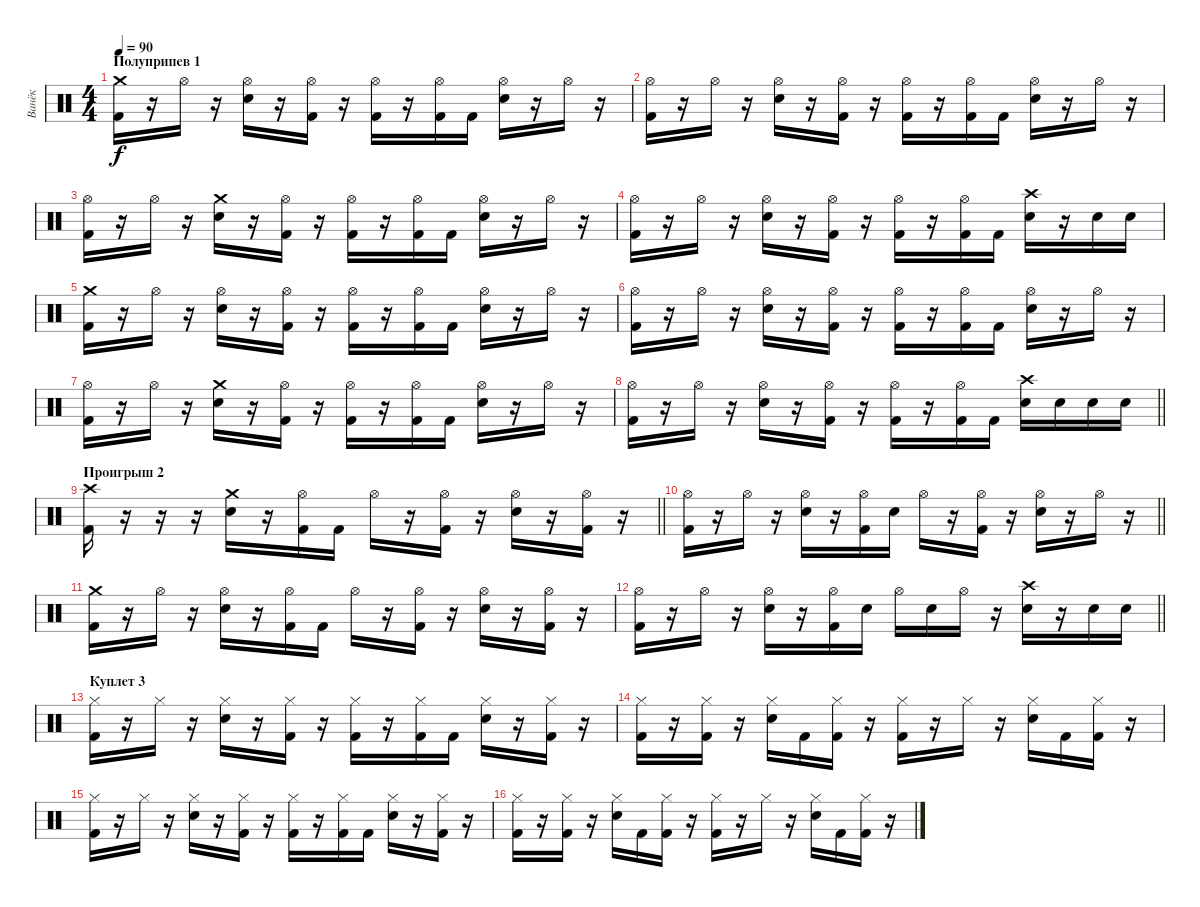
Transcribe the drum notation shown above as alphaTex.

\track ("Ванёк" "Ванёк") {instrument percussion}
\staff {score}
\articulation defaults
\ts (4 4)
\section ("" "Полуприпев 1")
\tempo 90
\clef neutral
\ks c
("Crash medium (hit)" "Kick (hit) 2").16{dy f} r.16 "Hi-Hat (open)".16 r.16 ("Hi-Hat (open)" "Electric Snare (hit)").16 r.16 ("Hi-Hat (open)" "Kick (hit) 2").16 r.16 ("Hi-Hat (open)" "Kick (hit) 2").16 r.16 ("Hi-Hat (open)" "Kick (hit) 2").16 "Kick (hit) 2".16 ("Hi-Hat (open)" "Electric Snare (hit)").16 r.16 "Hi-Hat (open)".16 r.16 |
("Hi-Hat (open)" "Kick (hit) 2").16 r.16 "Hi-Hat (open)".16 r.16 ("Hi-Hat (open)" "Electric Snare (hit)").16 r.16 ("Hi-Hat (open)" "Kick (hit) 2").16 r.16 ("Hi-Hat (open)" "Kick (hit) 2").16 r.16 ("Hi-Hat (open)" "Kick (hit) 2").16 "Kick (hit) 2".16 ("Hi-Hat (open)" "Electric Snare (hit)").16 r.16 "Hi-Hat (open)".16 r.16 |
("Hi-Hat (open)" "Kick (hit) 2").16 r.16 "Hi-Hat (open)".16 r.16 ("Crash medium (hit)" "Electric Snare (hit)").16 r.16 ("Hi-Hat (open)" "Kick (hit) 2").16 r.16 ("Hi-Hat (open)" "Kick (hit) 2").16 r.16 ("Hi-Hat (open)" "Kick (hit) 2").16 "Kick (hit) 2".16 ("Hi-Hat (open)" "Electric Snare (hit)").16 r.16 "Hi-Hat (open)".16 r.16 |
("Hi-Hat (open)" "Kick (hit) 2").16 r.16 "Hi-Hat (open)".16 r.16 ("Hi-Hat (open)" "Electric Snare (hit)").16 r.16 ("Hi-Hat (open)" "Kick (hit) 2").16 r.16 ("Hi-Hat (open)" "Kick (hit) 2").16 r.16 ("Hi-Hat (open)" "Kick (hit) 2").16 "Kick (hit) 2".16 ("Crash high (hit)" "Electric Snare (hit)").16 r.16 "Electric Snare (hit)".16 "Electric Snare (hit)".16 |
("Crash medium (hit)" "Kick (hit) 2").16 r.16 "Hi-Hat (open)".16 r.16 ("Hi-Hat (open)" "Electric Snare (hit)").16 r.16 ("Hi-Hat (open)" "Kick (hit) 2").16 r.16 ("Hi-Hat (open)" "Kick (hit) 2").16 r.16 ("Hi-Hat (open)" "Kick (hit) 2").16 "Kick (hit) 2".16 ("Hi-Hat (open)" "Electric Snare (hit)").16 r.16 "Hi-Hat (open)".16 r.16 |
("Hi-Hat (open)" "Kick (hit) 2").16 r.16 "Hi-Hat (open)".16 r.16 ("Hi-Hat (open)" "Electric Snare (hit)").16 r.16 ("Hi-Hat (open)" "Kick (hit) 2").16 r.16 ("Hi-Hat (open)" "Kick (hit) 2").16 r.16 ("Hi-Hat (open)" "Kick (hit) 2").16 "Kick (hit) 2".16 ("Hi-Hat (open)" "Electric Snare (hit)").16 r.16 "Hi-Hat (open)".16 r.16 |
("Hi-Hat (open)" "Kick (hit) 2").16 r.16 "Hi-Hat (open)".16 r.16 ("Crash medium (hit)" "Electric Snare (hit)").16 r.16 ("Hi-Hat (open)" "Kick (hit) 2").16 r.16 ("Hi-Hat (open)" "Kick (hit) 2").16 r.16 ("Hi-Hat (open)" "Kick (hit) 2").16 "Kick (hit) 2".16 ("Hi-Hat (open)" "Electric Snare (hit)").16 r.16 "Hi-Hat (open)".16 r.16 |
\barLineRight lightlight
("Hi-Hat (open)" "Kick (hit) 2").16 r.16 "Hi-Hat (open)".16 r.16 ("Hi-Hat (open)" "Electric Snare (hit)").16 r.16 ("Hi-Hat (open)" "Kick (hit) 2").16 r.16 ("Hi-Hat (open)" "Kick (hit) 2").16 r.16 ("Hi-Hat (open)" "Kick (hit) 2").16 "Kick (hit) 2".16 ("Crash high (hit)" "Electric Snare (hit)").16 "Electric Snare (hit)".16 "Electric Snare (hit)".16 "Electric Snare (hit)".16 |
\section ("" "Проигрыш 2")
\barLineRight lightlight
("Crash high (hit)" "Kick (hit) 2").16 r.16 r.16 r.16 ("Crash medium (hit)" "Electric Snare (hit)").16 r.16 ("Hi-Hat (open)" "Kick (hit) 2").16 "Kick (hit) 2".16 "Hi-Hat (open)".16 r.16 ("Hi-Hat (open)" "Kick (hit) 2").16 r.16 ("Hi-Hat (open)" "Electric Snare (hit)").16 r.16 ("Hi-Hat (open)" "Kick (hit) 2").16 r.16 |
\barLineRight lightlight
("Hi-Hat (open)" "Kick (hit) 2").16 r.16 "Hi-Hat (open)".16 r.16 ("Hi-Hat (open)" "Electric Snare (hit)").16 r.16 ("Hi-Hat (open)" "Kick (hit) 2").16 "Electric Snare (hit)".16 "Hi-Hat (open)".16 r.16 ("Hi-Hat (open)" "Kick (hit) 2").16 r.16 ("Hi-Hat (open)" "Electric Snare (hit)").16 r.16 "Hi-Hat (open)".16 r.16 |
("Crash medium (hit)" "Kick (hit) 2").16 r.16 "Hi-Hat (open)".16 r.16 ("Hi-Hat (open)" "Electric Snare (hit)").16 r.16 ("Hi-Hat (open)" "Kick (hit) 2").16 "Kick (hit) 2".16 "Hi-Hat (open)".16 r.16 ("Hi-Hat (open)" "Kick (hit) 2").16 r.16 ("Hi-Hat (open)" "Electric Snare (hit)").16 r.16 ("Hi-Hat (open)" "Kick (hit) 2").16 r.16 |
\barLineRight lightlight
("Hi-Hat (open)" "Kick (hit) 2").16 r.16 "Hi-Hat (open)".16 r.16 ("Hi-Hat (open)" "Electric Snare (hit)").16 r.16 ("Hi-Hat (open)" "Kick (hit) 2").16 "Electric Snare (hit)".16 "Hi-Hat (open)".16 "Electric Snare (hit)".16 "Hi-Hat (open)".16 r.16 ("Crash high (hit)" "Electric Snare (hit)").16 r.16 "Electric Snare (hit)".16 "Electric Snare (hit)".16 |
\section ("" "Куплет 3")
("Hi-Hat (closed)" "Kick (hit) 2").16 r.16 "Hi-Hat (closed)".16 r.16 ("Hi-Hat (closed)" "Electric Snare (hit)").16 r.16 ("Hi-Hat (closed)" "Kick (hit) 2").16 r.16 ("Hi-Hat (closed)" "Kick (hit) 2").16 r.16 ("Hi-Hat (closed)" "Kick (hit) 2").16 "Kick (hit) 2".16 ("Hi-Hat (closed)" "Electric Snare (hit)").16 r.16 ("Hi-Hat (closed)" "Kick (hit) 2").16 r.16 |
("Hi-Hat (closed)" "Kick (hit) 2").16 r.16 ("Hi-Hat (closed)" "Kick (hit) 2").16 r.16 ("Hi-Hat (closed)" "Electric Snare (hit)").16 "Kick (hit) 2".16 ("Hi-Hat (closed)" "Kick (hit) 2").16 r.16 ("Hi-Hat (closed)" "Kick (hit) 2").16 r.16 "Hi-Hat (closed)".16 r.16 ("Hi-Hat (closed)" "Electric Snare (hit)").16 "Kick (hit) 2".16 ("Hi-Hat (closed)" "Kick (hit) 2").16 r.16 |
("Hi-Hat (closed)" "Kick (hit) 2").16 r.16 "Hi-Hat (closed)".16 r.16 ("Hi-Hat (closed)" "Electric Snare (hit)").16 r.16 ("Hi-Hat (closed)" "Kick (hit) 2").16 r.16 ("Hi-Hat (closed)" "Kick (hit) 2").16 r.16 ("Hi-Hat (closed)" "Kick (hit) 2").16 "Kick (hit) 2".16 ("Hi-Hat (closed)" "Electric Snare (hit)").16 r.16 ("Hi-Hat (closed)" "Kick (hit) 2").16 r.16 |
("Hi-Hat (closed)" "Kick (hit) 2").16 r.16 ("Hi-Hat (closed)" "Kick (hit) 2").16 r.16 ("Hi-Hat (closed)" "Electric Snare (hit)").16 "Kick (hit) 2".16 ("Hi-Hat (closed)" "Kick (hit) 2").16 r.16 ("Hi-Hat (closed)" "Kick (hit) 2").16 r.16 "Hi-Hat (closed)".16 r.16 ("Hi-Hat (closed)" "Electric Snare (hit)").16 "Kick (hit) 2".16 ("Hi-Hat (closed)" "Kick (hit) 2").16 r.16
